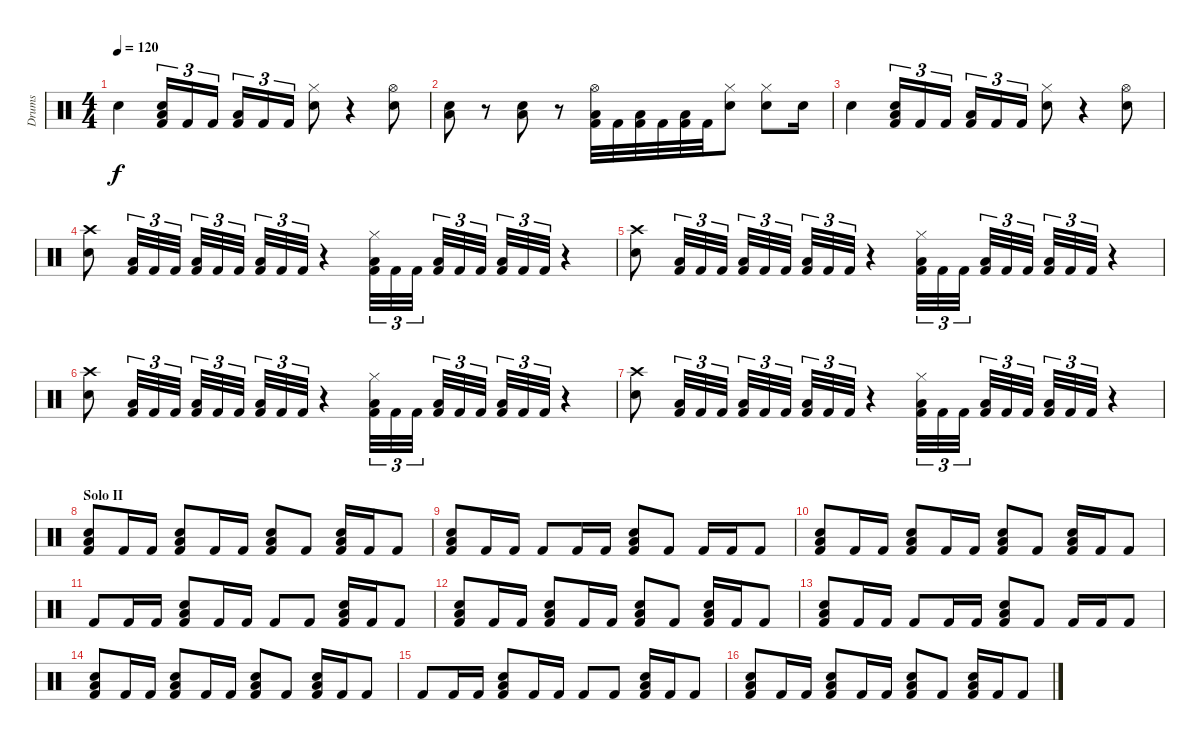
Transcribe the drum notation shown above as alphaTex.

\track ("Drums" "Drums") {instrument percussion}
\staff {score}
\articulation defaults
\ts (4 4)
\tempo 120
\clef neutral
\ks c "Snare (hit) 2".4{dy f}
("Snare (hit) 2" "Kick (hit) 2" "Low Tom (hit)").16{tu (3 2)} "Kick (hit) 2".16{tu (3 2)} "Kick (hit) 2".16{tu (3 2)} ("Kick (hit) 2" "Low Tom (hit)").16{tu (3 2)} "Kick (hit) 2".16{tu (3 2)} "Kick (hit) 2".16{tu (3 2)} ("Snare (hit) 2" "Hi-Hat (closed)").8 r.4 ("Snare (hit) 2" "Hi-Hat (open)").8 |
("Snare (hit) 2" "Low Tom (hit)").8 r.8 ("Snare (hit) 2" "Low Tom (hit)").8 r.8 ("Kick (hit) 2" "Hi-Hat (open)" "Low Tom (hit)").32 "Kick (hit) 2".32 ("Kick (hit) 2" "Low Tom (hit)").32 "Kick (hit) 2".32 ("Kick (hit) 2" "Low Tom (hit)").32 "Kick (hit) 2".32 ("Snare (hit) 2" "Hi-Hat (closed)").8 ("Snare (hit) 2" "Hi-Hat (closed)").8 "Snare (hit) 2".16 |
"Snare (hit) 2".4 ("Snare (hit) 2" "Kick (hit) 2" "Low Tom (hit)").16{tu (3 2)} "Kick (hit) 2".16{tu (3 2)} "Kick (hit) 2".16{tu (3 2)} ("Kick (hit) 2" "Low Tom (hit)").16{tu (3 2)} "Kick (hit) 2".16{tu (3 2)} "Kick (hit) 2".16{tu (3 2)} ("Snare (hit) 2" "Hi-Hat (closed)").8 r.4 ("Snare (hit) 2" "Hi-Hat (open)").8 |
("Snare (hit) 2" "Crash high (hit)").8 ("Kick (hit) 2" "Low Tom (hit)").32{tu (3 2)} "Kick (hit) 2".32{tu (3 2)} "Kick (hit) 2".32{tu (3 2)} ("Kick (hit) 2" "Low Tom (hit)").32{tu (3 2)} "Kick (hit) 2".32{tu (3 2)} "Kick (hit) 2".32{tu (3 2)} ("Kick (hit) 2" "Low Tom (hit)").32{tu (3 2)} "Kick (hit) 2".32{tu (3 2)} "Kick (hit) 2".32{tu (3 2)} r.4 ("Kick (hit) 2" "Hi-Hat (closed)" "Low Tom (hit)").32{tu (3 2)} "Kick (hit) 2".32{tu (3 2)} "Kick (hit) 2".32{tu (3 2)} ("Kick (hit) 2" "Low Tom (hit)").32{tu (3 2)} "Kick (hit) 2".32{tu (3 2)} "Kick (hit) 2".32{tu (3 2)} ("Kick (hit) 2" "Low Tom (hit)").32{tu (3 2)} "Kick (hit) 2".32{tu (3 2)} "Kick (hit) 2".32{tu (3 2)} r.4 |
("Snare (hit) 2" "Crash high (hit)").8 ("Kick (hit) 2" "Low Tom (hit)").32{tu (3 2)} "Kick (hit) 2".32{tu (3 2)} "Kick (hit) 2".32{tu (3 2)} ("Kick (hit) 2" "Low Tom (hit)").32{tu (3 2)} "Kick (hit) 2".32{tu (3 2)} "Kick (hit) 2".32{tu (3 2)} ("Kick (hit) 2" "Low Tom (hit)").32{tu (3 2)} "Kick (hit) 2".32{tu (3 2)} "Kick (hit) 2".32{tu (3 2)} r.4 ("Kick (hit) 2" "Hi-Hat (closed)" "Low Tom (hit)").32{tu (3 2)} "Kick (hit) 2".32{tu (3 2)} "Kick (hit) 2".32{tu (3 2)} ("Kick (hit) 2" "Low Tom (hit)").32{tu (3 2)} "Kick (hit) 2".32{tu (3 2)} "Kick (hit) 2".32{tu (3 2)} ("Kick (hit) 2" "Low Tom (hit)").32{tu (3 2)} "Kick (hit) 2".32{tu (3 2)} "Kick (hit) 2".32{tu (3 2)} r.4 |
("Snare (hit) 2" "Crash high (hit)").8 ("Kick (hit) 2" "Low Tom (hit)").32{tu (3 2)} "Kick (hit) 2".32{tu (3 2)} "Kick (hit) 2".32{tu (3 2)} ("Kick (hit) 2" "Low Tom (hit)").32{tu (3 2)} "Kick (hit) 2".32{tu (3 2)} "Kick (hit) 2".32{tu (3 2)} ("Kick (hit) 2" "Low Tom (hit)").32{tu (3 2)} "Kick (hit) 2".32{tu (3 2)} "Kick (hit) 2".32{tu (3 2)} r.4 ("Kick (hit) 2" "Hi-Hat (closed)" "Low Tom (hit)").32{tu (3 2)} "Kick (hit) 2".32{tu (3 2)} "Kick (hit) 2".32{tu (3 2)} ("Kick (hit) 2" "Low Tom (hit)").32{tu (3 2)} "Kick (hit) 2".32{tu (3 2)} "Kick (hit) 2".32{tu (3 2)} ("Kick (hit) 2" "Low Tom (hit)").32{tu (3 2)} "Kick (hit) 2".32{tu (3 2)} "Kick (hit) 2".32{tu (3 2)} r.4 |
("Snare (hit) 2" "Crash high (hit)").8 ("Kick (hit) 2" "Low Tom (hit)").32{tu (3 2)} "Kick (hit) 2".32{tu (3 2)} "Kick (hit) 2".32{tu (3 2)} ("Kick (hit) 2" "Low Tom (hit)").32{tu (3 2)} "Kick (hit) 2".32{tu (3 2)} "Kick (hit) 2".32{tu (3 2)} ("Kick (hit) 2" "Low Tom (hit)").32{tu (3 2)} "Kick (hit) 2".32{tu (3 2)} "Kick (hit) 2".32{tu (3 2)} r.4 ("Kick (hit) 2" "Hi-Hat (closed)" "Low Tom (hit)").32{tu (3 2)} "Kick (hit) 2".32{tu (3 2)} "Kick (hit) 2".32{tu (3 2)} ("Kick (hit) 2" "Low Tom (hit)").32{tu (3 2)} "Kick (hit) 2".32{tu (3 2)} "Kick (hit) 2".32{tu (3 2)} ("Kick (hit) 2" "Low Tom (hit)").32{tu (3 2)} "Kick (hit) 2".32{tu (3 2)} "Kick (hit) 2".32{tu (3 2)} r.4 |
\section ("" "Solo II")
("Snare (hit) 2" "Low Tom (hit)" "Kick (hit) 2").8 "Kick (hit) 2".16 "Kick (hit) 2".16 ("Snare (hit) 2" "Low Tom (hit)" "Kick (hit) 2").8 "Kick (hit) 2".16 "Kick (hit) 2".16 ("Snare (hit) 2" "Low Tom (hit)" "Kick (hit) 2").8 "Kick (hit) 2".8 ("Snare (hit) 2" "Low Tom (hit)" "Kick (hit) 2").16 "Kick (hit) 2".16 "Kick (hit) 2".8 |
("Snare (hit) 2" "Low Tom (hit)" "Kick (hit) 2").8 "Kick (hit) 2".16 "Kick (hit) 2".16 "Kick (hit) 2".8 "Kick (hit) 2".16 "Kick (hit) 2".16 ("Snare (hit) 2" "Low Tom (hit)" "Kick (hit) 2").8 "Kick (hit) 2".8 "Kick (hit) 2".16 "Kick (hit) 2".16 "Kick (hit) 2".8 |
("Snare (hit) 2" "Low Tom (hit)" "Kick (hit) 2").8 "Kick (hit) 2".16 "Kick (hit) 2".16 ("Snare (hit) 2" "Low Tom (hit)" "Kick (hit) 2").8 "Kick (hit) 2".16 "Kick (hit) 2".16 ("Snare (hit) 2" "Low Tom (hit)" "Kick (hit) 2").8 "Kick (hit) 2".8 ("Snare (hit) 2" "Low Tom (hit)" "Kick (hit) 2").16 "Kick (hit) 2".16 "Kick (hit) 2".8 |
"Kick (hit) 2".8 "Kick (hit) 2".16 "Kick (hit) 2".16 ("Snare (hit) 2" "Low Tom (hit)" "Kick (hit) 2").8 "Kick (hit) 2".16 "Kick (hit) 2".16 "Kick (hit) 2".8 "Kick (hit) 2".8 ("Snare (hit) 2" "Low Tom (hit)" "Kick (hit) 2").16 "Kick (hit) 2".16 "Kick (hit) 2".8 |
("Snare (hit) 2" "Low Tom (hit)" "Kick (hit) 2").8 "Kick (hit) 2".16 "Kick (hit) 2".16 ("Snare (hit) 2" "Low Tom (hit)" "Kick (hit) 2").8 "Kick (hit) 2".16 "Kick (hit) 2".16 ("Snare (hit) 2" "Low Tom (hit)" "Kick (hit) 2").8 "Kick (hit) 2".8 ("Snare (hit) 2" "Low Tom (hit)" "Kick (hit) 2").16 "Kick (hit) 2".16 "Kick (hit) 2".8 |
("Snare (hit) 2" "Low Tom (hit)" "Kick (hit) 2").8 "Kick (hit) 2".16 "Kick (hit) 2".16 "Kick (hit) 2".8 "Kick (hit) 2".16 "Kick (hit) 2".16 ("Snare (hit) 2" "Low Tom (hit)" "Kick (hit) 2").8 "Kick (hit) 2".8 "Kick (hit) 2".16 "Kick (hit) 2".16 "Kick (hit) 2".8 |
("Snare (hit) 2" "Low Tom (hit)" "Kick (hit) 2").8 "Kick (hit) 2".16 "Kick (hit) 2".16 ("Snare (hit) 2" "Low Tom (hit)" "Kick (hit) 2").8 "Kick (hit) 2".16 "Kick (hit) 2".16 ("Snare (hit) 2" "Low Tom (hit)" "Kick (hit) 2").8 "Kick (hit) 2".8 ("Snare (hit) 2" "Low Tom (hit)" "Kick (hit) 2").16 "Kick (hit) 2".16 "Kick (hit) 2".8 |
"Kick (hit) 2".8 "Kick (hit) 2".16 "Kick (hit) 2".16 ("Snare (hit) 2" "Low Tom (hit)" "Kick (hit) 2").8 "Kick (hit) 2".16 "Kick (hit) 2".16 "Kick (hit) 2".8 "Kick (hit) 2".8 ("Snare (hit) 2" "Low Tom (hit)" "Kick (hit) 2").16 "Kick (hit) 2".16 "Kick (hit) 2".8 |
("Snare (hit) 2" "Low Tom (hit)" "Kick (hit) 2").8 "Kick (hit) 2".16 "Kick (hit) 2".16 ("Snare (hit) 2" "Low Tom (hit)" "Kick (hit) 2").8 "Kick (hit) 2".16 "Kick (hit) 2".16 ("Snare (hit) 2" "Low Tom (hit)" "Kick (hit) 2").8 "Kick (hit) 2".8 ("Snare (hit) 2" "Low Tom (hit)" "Kick (hit) 2").16 "Kick (hit) 2".16 "Kick (hit) 2".8
